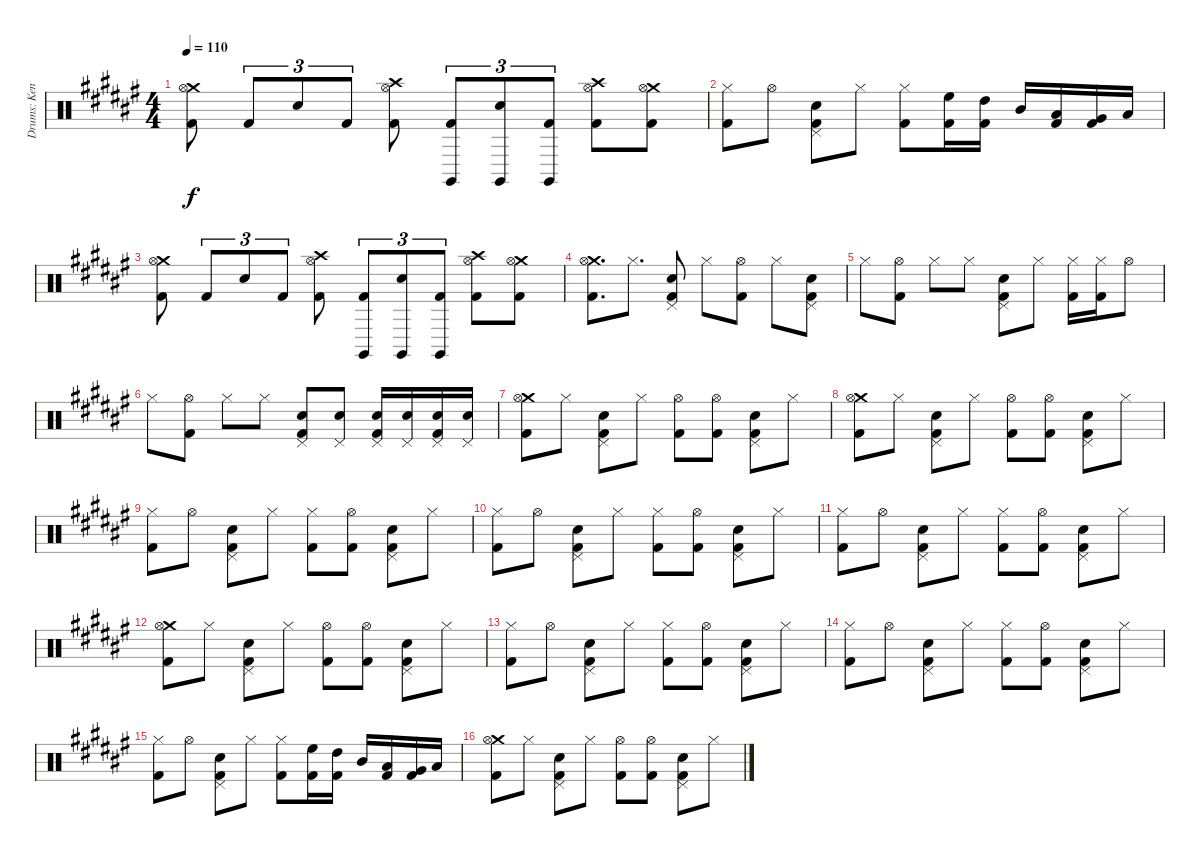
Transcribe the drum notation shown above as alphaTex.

\track ("Drums: Kenny Aronoff" "Drums: Ken") {instrument percussion}
\staff {score}
\articulation defaults
\ts (4 4)
\tempo 110
\clef neutral
\ks f#
("Crash medium (hit)" "Hi-Hat (open)" "Kick (hit) 2").8{dy f} "Kick (hit) 2".8{tu (3 2)} "Snare (hit) 2".8{tu (3 2)} "Kick (hit) 2".8{tu (3 2)} ("Crash high (hit)" "Hi-Hat (open)" "Kick (hit) 2").8 ("Claves (hit)" "Kick (hit) 2").8{tu (3 2)} ("Claves (hit)" "Snare (hit) 2").8{tu (3 2)} ("Claves (hit)" "Kick (hit) 2").8{tu (3 2)} ("Crash high (hit)" "Hi-Hat (open)" "Kick (hit) 2").8 ("Crash medium (hit)" "Hi-Hat (open)" "Kick (hit) 2").8 |
("Hi-Hat (closed)" "Kick (hit) 2").8 "Hi-Hat (open)".8 ("Pedal Hi-Hat (hit)" "Snare (hit) 2" "Kick (hit) 2").8 "Hi-Hat (closed)".8 ("Hi-Hat (closed)" "Kick (hit) 2").8 ("High Floor Tom (hit)" "Kick (hit) 2").16 ("High Tom (hit)" "Kick (hit) 2").16 "Mid Tom (hit)".16 ("Low Tom (hit)" "Kick (hit) 2").16 ("Very Low Tom (hit)" "Kick (hit) 2").16 "Low Floor Tom (hit)".16 |
("Crash medium (hit)" "Hi-Hat (open)" "Kick (hit) 2").8 "Kick (hit) 2".8{tu (3 2)} "Snare (hit) 2".8{tu (3 2)} "Kick (hit) 2".8{tu (3 2)} ("Crash high (hit)" "Hi-Hat (open)" "Kick (hit) 2").8 ("Claves (hit)" "Kick (hit) 2").8{tu (3 2)} ("Claves (hit)" "Snare (hit) 2").8{tu (3 2)} ("Claves (hit)" "Kick (hit) 2").8{tu (3 2)} ("Crash high (hit)" "Hi-Hat (open)" "Kick (hit) 2").8 ("Crash medium (hit)" "Hi-Hat (open)" "Kick (hit) 2").8 |
("Crash medium (hit)" "Hi-Hat (open)" "Kick (hit) 2").8{d} "Hi-Hat (closed)".8{d} ("Pedal Hi-Hat (hit)" "Snare (hit) 2" "Kick (hit) 2").8 "Hi-Hat (closed)".8 ("Hi-Hat (open)" "Kick (hit) 2").8 "Hi-Hat (closed)".8 ("Pedal Hi-Hat (hit)" "Snare (hit) 2" "Kick (hit) 2").8 |
"Hi-Hat (closed)".8 ("Hi-Hat (open)" "Kick (hit) 2").8 "Hi-Hat (closed)".8 "Hi-Hat (closed)".8 ("Pedal Hi-Hat (hit)" "Snare (hit) 2" "Kick (hit) 2").8 "Hi-Hat (closed)".8 ("Hi-Hat (closed)" "Kick (hit) 2").16 ("Hi-Hat (closed)" "Kick (hit) 2").16 "Hi-Hat (open)".8 |
"Hi-Hat (closed)".8 ("Hi-Hat (open)" "Kick (hit) 2").8 "Hi-Hat (closed)".8 "Hi-Hat (closed)".8 ("Pedal Hi-Hat (hit)" "Snare (hit) 2" "Kick (hit) 2").8 ("Pedal Hi-Hat (hit)" "Snare (hit) 2").8 ("Pedal Hi-Hat (hit)" "Snare (hit) 2" "Kick (hit) 2").16 ("Pedal Hi-Hat (hit)" "Snare (hit) 2").16 ("Pedal Hi-Hat (hit)" "Snare (hit) 2" "Kick (hit) 2").16 ("Pedal Hi-Hat (hit)" "Snare (hit) 2").16 |
("Crash medium (hit)" "Hi-Hat (open)" "Kick (hit) 2").8 "Hi-Hat (closed)".8 ("Pedal Hi-Hat (hit)" "Snare (hit) 2" "Kick (hit) 2").8 "Hi-Hat (closed)".8 ("Hi-Hat (open)" "Kick (hit) 2").8 ("Hi-Hat (open)" "Kick (hit) 2").8 ("Pedal Hi-Hat (hit)" "Snare (hit) 2" "Kick (hit) 2").8 "Hi-Hat (closed)".8 |
("Crash medium (hit)" "Hi-Hat (open)" "Kick (hit) 2").8 "Hi-Hat (closed)".8 ("Pedal Hi-Hat (hit)" "Snare (hit) 2" "Kick (hit) 2").8 "Hi-Hat (closed)".8 ("Hi-Hat (open)" "Kick (hit) 2").8 ("Hi-Hat (open)" "Kick (hit) 2").8 ("Pedal Hi-Hat (hit)" "Snare (hit) 2" "Kick (hit) 2").8 "Hi-Hat (closed)".8 |
("Hi-Hat (closed)" "Kick (hit) 2").8 "Hi-Hat (open)".8 ("Pedal Hi-Hat (hit)" "Snare (hit) 2" "Kick (hit) 2").8 "Hi-Hat (closed)".8 ("Hi-Hat (closed)" "Kick (hit) 2").8 ("Hi-Hat (open)" "Kick (hit) 2").8 ("Pedal Hi-Hat (hit)" "Snare (hit) 2" "Kick (hit) 2").8 "Hi-Hat (closed)".8 |
("Hi-Hat (closed)" "Kick (hit) 2").8 "Hi-Hat (open)".8 ("Pedal Hi-Hat (hit)" "Snare (hit) 2" "Kick (hit) 2").8 "Hi-Hat (closed)".8 ("Hi-Hat (closed)" "Kick (hit) 2").8 ("Hi-Hat (open)" "Kick (hit) 2").8 ("Pedal Hi-Hat (hit)" "Snare (hit) 2" "Kick (hit) 2").8 "Hi-Hat (closed)".8 |
("Hi-Hat (closed)" "Kick (hit) 2").8 "Hi-Hat (open)".8 ("Pedal Hi-Hat (hit)" "Snare (hit) 2" "Kick (hit) 2").8 "Hi-Hat (closed)".8 ("Hi-Hat (closed)" "Kick (hit) 2").8 ("Hi-Hat (open)" "Kick (hit) 2").8 ("Pedal Hi-Hat (hit)" "Snare (hit) 2" "Kick (hit) 2").8 "Hi-Hat (closed)".8 |
("Crash medium (hit)" "Hi-Hat (open)" "Kick (hit) 2").8 "Hi-Hat (closed)".8 ("Pedal Hi-Hat (hit)" "Snare (hit) 2" "Kick (hit) 2").8 "Hi-Hat (closed)".8 ("Hi-Hat (open)" "Kick (hit) 2").8 ("Hi-Hat (open)" "Kick (hit) 2").8 ("Pedal Hi-Hat (hit)" "Snare (hit) 2" "Kick (hit) 2").8 "Hi-Hat (closed)".8 |
("Hi-Hat (closed)" "Kick (hit) 2").8 "Hi-Hat (open)".8 ("Pedal Hi-Hat (hit)" "Snare (hit) 2" "Kick (hit) 2").8 "Hi-Hat (closed)".8 ("Hi-Hat (closed)" "Kick (hit) 2").8 ("Hi-Hat (open)" "Kick (hit) 2").8 ("Pedal Hi-Hat (hit)" "Snare (hit) 2" "Kick (hit) 2").8 "Hi-Hat (closed)".8 |
("Hi-Hat (closed)" "Kick (hit) 2").8 "Hi-Hat (open)".8 ("Pedal Hi-Hat (hit)" "Snare (hit) 2" "Kick (hit) 2").8 "Hi-Hat (closed)".8 ("Hi-Hat (closed)" "Kick (hit) 2").8 ("Hi-Hat (open)" "Kick (hit) 2").8 ("Pedal Hi-Hat (hit)" "Snare (hit) 2" "Kick (hit) 2").8 "Hi-Hat (closed)".8 |
("Hi-Hat (closed)" "Kick (hit) 2").8 "Hi-Hat (open)".8 ("Pedal Hi-Hat (hit)" "Snare (hit) 2" "Kick (hit) 2").8 "Hi-Hat (closed)".8 ("Hi-Hat (closed)" "Kick (hit) 2").8 ("High Floor Tom (hit)" "Kick (hit) 2").16 ("High Tom (hit)" "Kick (hit) 2").16 "Mid Tom (hit)".16 ("Low Tom (hit)" "Kick (hit) 2").16 ("Very Low Tom (hit)" "Kick (hit) 2").16 "Low Floor Tom (hit)".16 |
("Crash medium (hit)" "Hi-Hat (open)" "Kick (hit) 2").8 "Hi-Hat (closed)".8 ("Pedal Hi-Hat (hit)" "Snare (hit) 2" "Kick (hit) 2").8 "Hi-Hat (closed)".8 ("Hi-Hat (open)" "Kick (hit) 2").8 ("Hi-Hat (open)" "Kick (hit) 2").8 ("Pedal Hi-Hat (hit)" "Snare (hit) 2" "Kick (hit) 2").8 "Hi-Hat (closed)".8
